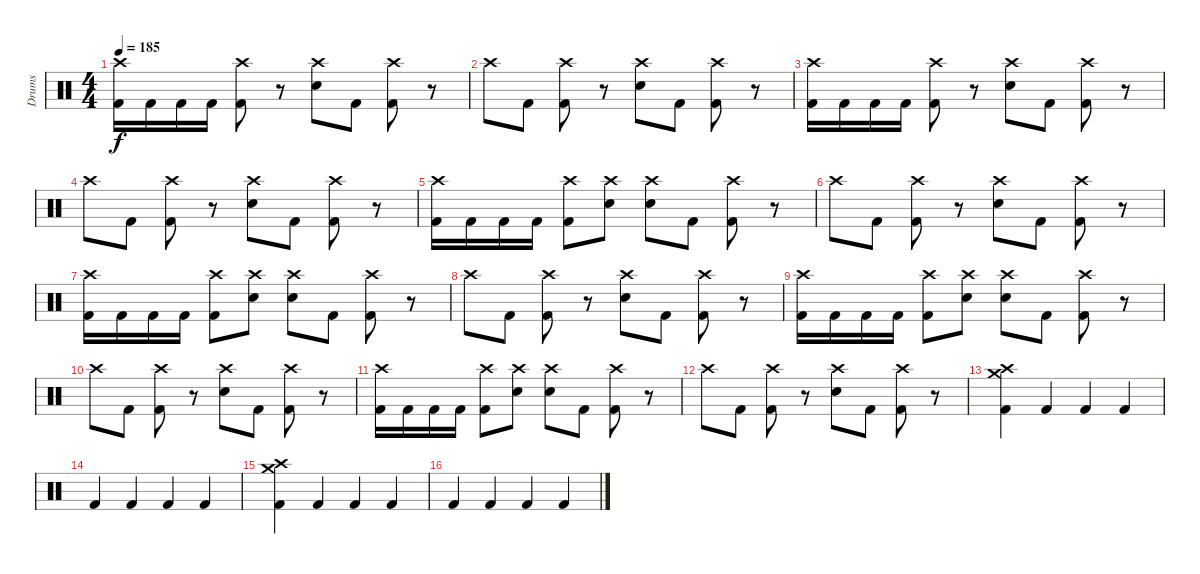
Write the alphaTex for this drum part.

\track ("Drums" "Drums") {instrument percussion}
\staff {score}
\articulation defaults
\ts (4 4)
\tempo 185
\clef neutral
\ks c
("Crash high (hit)" "Kick (hit) 2").16{dy f} "Kick (hit) 2".16 "Kick (hit) 2".16 "Kick (hit) 2".16 ("Crash high (hit)" "Kick (hit) 2").8 r.8 ("Crash high (hit)" "Electric Snare (hit)").8 "Kick (hit) 2".8 ("Crash high (hit)" "Kick (hit) 2").8 r.8 |
"Crash high (hit)".8 "Kick (hit) 2".8 ("Crash high (hit)" "Kick (hit) 2").8 r.8 ("Crash high (hit)" "Electric Snare (hit)").8 "Kick (hit) 2".8 ("Crash high (hit)" "Kick (hit) 2").8 r.8 |
("Crash high (hit)" "Kick (hit) 2").16 "Kick (hit) 2".16 "Kick (hit) 2".16 "Kick (hit) 2".16 ("Crash high (hit)" "Kick (hit) 2").8 r.8 ("Crash high (hit)" "Electric Snare (hit)").8 "Kick (hit) 2".8 ("Crash high (hit)" "Kick (hit) 2").8 r.8 |
"Crash high (hit)".8 "Kick (hit) 2".8 ("Crash high (hit)" "Kick (hit) 2").8 r.8 ("Crash high (hit)" "Electric Snare (hit)").8 "Kick (hit) 2".8 ("Crash high (hit)" "Kick (hit) 2").8 r.8 |
("Crash high (hit)" "Kick (hit) 2").16 "Kick (hit) 2".16 "Kick (hit) 2".16 "Kick (hit) 2".16 ("Crash high (hit)" "Kick (hit) 2").8 ("Crash high (hit)" "Electric Snare (hit)").8 ("Crash high (hit)" "Electric Snare (hit)").8 "Kick (hit) 2".8 ("Crash high (hit)" "Kick (hit) 2").8 r.8 |
"Crash high (hit)".8 "Kick (hit) 2".8 ("Crash high (hit)" "Kick (hit) 2").8 r.8 ("Crash high (hit)" "Electric Snare (hit)").8 "Kick (hit) 2".8 ("Crash high (hit)" "Kick (hit) 2").8 r.8 |
("Crash high (hit)" "Kick (hit) 2").16 "Kick (hit) 2".16 "Kick (hit) 2".16 "Kick (hit) 2".16 ("Crash high (hit)" "Kick (hit) 2").8 ("Crash high (hit)" "Electric Snare (hit)").8 ("Crash high (hit)" "Electric Snare (hit)").8 "Kick (hit) 2".8 ("Crash high (hit)" "Kick (hit) 2").8 r.8 |
"Crash high (hit)".8 "Kick (hit) 2".8 ("Crash high (hit)" "Kick (hit) 2").8 r.8 ("Crash high (hit)" "Electric Snare (hit)").8 "Kick (hit) 2".8 ("Crash high (hit)" "Kick (hit) 2").8 r.8 |
("Crash high (hit)" "Kick (hit) 2").16 "Kick (hit) 2".16 "Kick (hit) 2".16 "Kick (hit) 2".16 ("Crash high (hit)" "Kick (hit) 2").8 ("Crash high (hit)" "Electric Snare (hit)").8 ("Crash high (hit)" "Electric Snare (hit)").8 "Kick (hit) 2".8 ("Crash high (hit)" "Kick (hit) 2").8 r.8 |
"Crash high (hit)".8 "Kick (hit) 2".8 ("Crash high (hit)" "Kick (hit) 2").8 r.8 ("Crash high (hit)" "Electric Snare (hit)").8 "Kick (hit) 2".8 ("Crash high (hit)" "Kick (hit) 2").8 r.8 |
("Crash high (hit)" "Kick (hit) 2").16 "Kick (hit) 2".16 "Kick (hit) 2".16 "Kick (hit) 2".16 ("Crash high (hit)" "Kick (hit) 2").8 ("Crash high (hit)" "Electric Snare (hit)").8 ("Crash high (hit)" "Electric Snare (hit)").8 "Kick (hit) 2".8 ("Crash high (hit)" "Kick (hit) 2").8 r.8 |
"Crash high (hit)".8 "Kick (hit) 2".8 ("Crash high (hit)" "Kick (hit) 2").8 r.8 ("Crash high (hit)" "Electric Snare (hit)").8 "Kick (hit) 2".8 ("Crash high (hit)" "Kick (hit) 2").8 r.8 |
("Crash medium (hit)" "Crash high (hit)" "Kick (hit) 2").4 "Kick (hit) 2".4 "Kick (hit) 2".4 "Kick (hit) 2".4 |
"Kick (hit) 2".4 "Kick (hit) 2".4 "Kick (hit) 2".4 "Kick (hit) 2".4 |
("Crash medium (hit)" "Crash high (hit)" "Kick (hit) 2").4 "Kick (hit) 2".4 "Kick (hit) 2".4 "Kick (hit) 2".4 |
"Kick (hit) 2".4 "Kick (hit) 2".4 "Kick (hit) 2".4 "Kick (hit) 2".4
